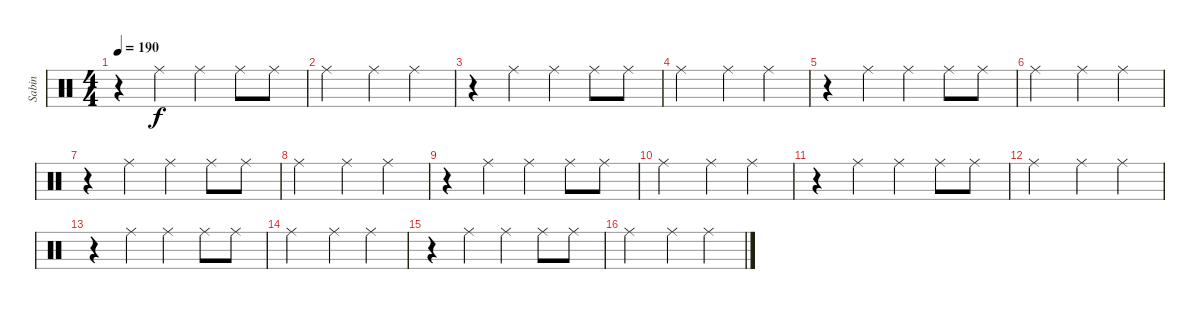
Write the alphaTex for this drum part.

\track ("Sabin" "Sabin") {instrument percussion}
\staff {score}
\articulation defaults
\ts (4 4)
\tempo 190
\clef neutral
\ks c
r.4{dy f} "Ride (middle)".4 "Ride (middle)".4 "Ride (middle)".8 "Ride (middle)".8 |
"Ride (middle)".2 "Ride (middle)".4 "Ride (middle)".4 |
r.4 "Ride (middle)".4 "Ride (middle)".4 "Ride (middle)".8 "Ride (middle)".8 |
"Ride (middle)".2 "Ride (middle)".4 "Ride (middle)".4 |
r.4 "Ride (middle)".4 "Ride (middle)".4 "Ride (middle)".8 "Ride (middle)".8 |
"Ride (middle)".2 "Ride (middle)".4 "Ride (middle)".4 |
r.4 "Ride (middle)".4 "Ride (middle)".4 "Ride (middle)".8 "Ride (middle)".8 |
"Ride (middle)".2 "Ride (middle)".4 "Ride (middle)".4 |
r.4 "Ride (middle)".4 "Ride (middle)".4 "Ride (middle)".8 "Ride (middle)".8 |
"Ride (middle)".2 "Ride (middle)".4 "Ride (middle)".4 |
r.4 "Ride (middle)".4 "Ride (middle)".4 "Ride (middle)".8 "Ride (middle)".8 |
"Ride (middle)".2 "Ride (middle)".4 "Ride (middle)".4 |
r.4 "Ride (middle)".4 "Ride (middle)".4 "Ride (middle)".8 "Ride (middle)".8 |
"Ride (middle)".2 "Ride (middle)".4 "Ride (middle)".4 |
r.4 "Ride (middle)".4 "Ride (middle)".4 "Ride (middle)".8 "Ride (middle)".8 |
"Ride (middle)".2 "Ride (middle)".4 "Ride (middle)".4
